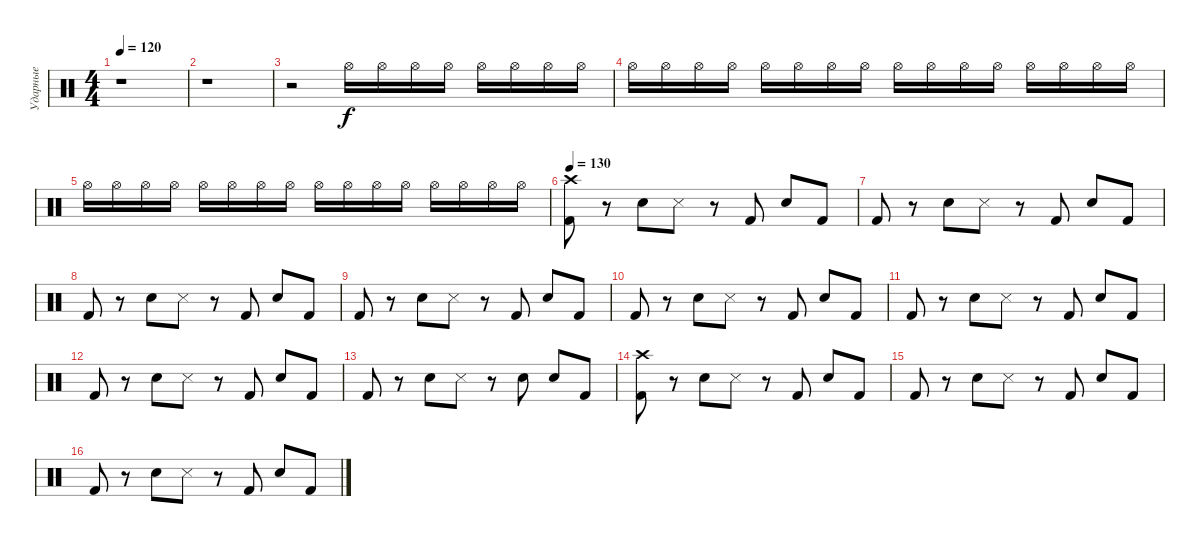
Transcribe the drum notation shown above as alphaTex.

\track ("Ударные" "Ударные") {instrument percussion}
\staff {score}
\articulation defaults
\ts (4 4)
\tempo 120
\clef neutral
\ks c
r.1{dy f} |
r.1 |
r.2 "Hi-Hat (open)".16{volume 2} "Hi-Hat (open)".16{volume 2} "Hi-Hat (open)".16{volume 2} "Hi-Hat (open)".16{volume 2} "Hi-Hat (open)".16{volume 2} "Hi-Hat (open)".16{volume 2} "Hi-Hat (open)".16{volume 3} "Hi-Hat (open)".16{volume 3} |
"Hi-Hat (open)".16{volume 3} "Hi-Hat (open)".16{volume 3} "Hi-Hat (open)".16{volume 3} "Hi-Hat (open)".16{volume 4} "Hi-Hat (open)".16{volume 4} "Hi-Hat (open)".16{volume 4} "Hi-Hat (open)".16{volume 4} "Hi-Hat (open)".16{volume 4} "Hi-Hat (open)".16{volume 4} "Hi-Hat (open)".16{volume 5} "Hi-Hat (open)".16{volume 5} "Hi-Hat (open)".16{volume 5} "Hi-Hat (open)".16{volume 5} "Hi-Hat (open)".16{volume 6} "Hi-Hat (open)".16{volume 6} "Hi-Hat (open)".16{volume 6} |
"Hi-Hat (open)".16{volume 6} "Hi-Hat (open)".16{volume 6} "Hi-Hat (open)".16{volume 6} "Hi-Hat (open)".16{volume 6} "Hi-Hat (open)".16{volume 6} "Hi-Hat (open)".16{volume 7} "Hi-Hat (open)".16{volume 7} "Hi-Hat (open)".16{volume 7} "Hi-Hat (open)".16{volume 7} "Hi-Hat (open)".16{volume 8} "Hi-Hat (open)".16{volume 8} "Hi-Hat (open)".16{volume 8} "Hi-Hat (open)".16{volume 8} "Hi-Hat (open)".16{volume 8} "Hi-Hat (open)".16{volume 9} "Hi-Hat (open)".16{volume 9} |
\tempo 130
("Kick (hit) 2" "Crash high (hit)").8{volume 13} r.8 "Electric Snare (hit)".8 "Snare (side stick) 3".8 r.8 "Kick (hit) 2".8 "Electric Snare (hit)".8 "Kick (hit) 2".8 |
"Kick (hit) 2".8 r.8 "Electric Snare (hit)".8 "Snare (side stick) 3".8 r.8 "Kick (hit) 2".8 "Electric Snare (hit)".8 "Kick (hit) 2".8 |
"Kick (hit) 2".8 r.8 "Electric Snare (hit)".8 "Snare (side stick) 3".8 r.8 "Kick (hit) 2".8 "Electric Snare (hit)".8 "Kick (hit) 2".8 |
"Kick (hit) 2".8 r.8 "Electric Snare (hit)".8 "Snare (side stick) 3".8 r.8 "Kick (hit) 2".8 "Electric Snare (hit)".8 "Kick (hit) 2".8 |
"Kick (hit) 2".8 r.8 "Electric Snare (hit)".8 "Snare (side stick) 3".8 r.8 "Kick (hit) 2".8 "Electric Snare (hit)".8 "Kick (hit) 2".8 |
"Kick (hit) 2".8 r.8 "Electric Snare (hit)".8 "Snare (side stick) 3".8 r.8 "Kick (hit) 2".8 "Electric Snare (hit)".8 "Kick (hit) 2".8 |
"Kick (hit) 2".8 r.8 "Electric Snare (hit)".8 "Snare (side stick) 3".8 r.8 "Kick (hit) 2".8 "Electric Snare (hit)".8 "Kick (hit) 2".8 |
"Kick (hit) 2".8 r.8 "Electric Snare (hit)".8 "Snare (side stick) 3".8 r.8 "Electric Snare (hit)".8 "Electric Snare (hit)".8 "Kick (hit) 2".8 |
("Crash high (hit)" "Kick (hit) 2").8 r.8 "Electric Snare (hit)".8 "Snare (side stick) 3".8 r.8 "Kick (hit) 2".8 "Electric Snare (hit)".8 "Kick (hit) 2".8 |
"Kick (hit) 2".8 r.8 "Electric Snare (hit)".8 "Snare (side stick) 3".8 r.8 "Kick (hit) 2".8 "Electric Snare (hit)".8 "Kick (hit) 2".8 |
"Kick (hit) 2".8 r.8 "Electric Snare (hit)".8 "Snare (side stick) 3".8 r.8 "Kick (hit) 2".8 "Electric Snare (hit)".8 "Kick (hit) 2".8
